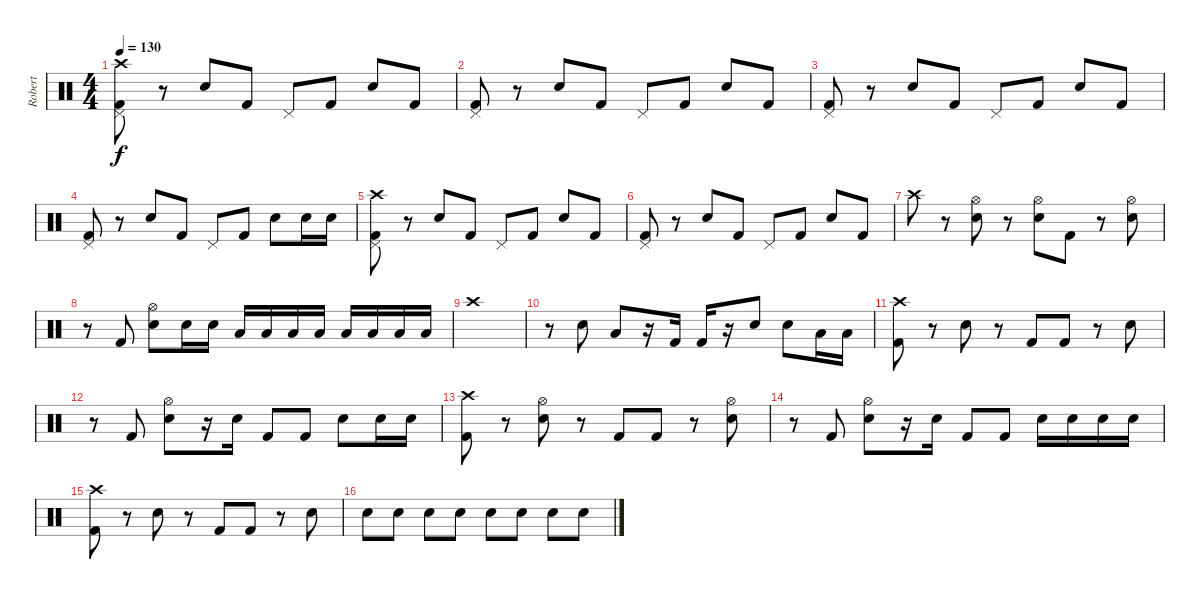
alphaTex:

\track ("Robert" "Robert") {instrument percussion}
\staff {score}
\articulation defaults
\ts (4 4)
\tempo 130
\clef neutral
\ks c
("Crash high (hit)" "Pedal Hi-Hat (hit)" "Kick (hit) 2").8{dy f} r.8 "Electric Snare (hit)".8 "Kick (hit) 2".8 "Pedal Hi-Hat (hit)".8 "Kick (hit) 2".8 "Electric Snare (hit)".8 "Kick (hit) 2".8 |
("Pedal Hi-Hat (hit)" "Kick (hit) 2").8 r.8 "Electric Snare (hit)".8 "Kick (hit) 2".8 "Pedal Hi-Hat (hit)".8 "Kick (hit) 2".8 "Electric Snare (hit)".8 "Kick (hit) 2".8 |
("Pedal Hi-Hat (hit)" "Kick (hit) 2").8 r.8 "Electric Snare (hit)".8 "Kick (hit) 2".8 "Pedal Hi-Hat (hit)".8 "Kick (hit) 2".8 "Electric Snare (hit)".8 "Kick (hit) 2".8 |
("Pedal Hi-Hat (hit)" "Kick (hit) 2").8 r.8 "Electric Snare (hit)".8 "Kick (hit) 2".8 "Pedal Hi-Hat (hit)".8 "Kick (hit) 2".8 "Electric Snare (hit)".8 "Electric Snare (hit)".16 "Electric Snare (hit)".16 |
("Crash high (hit)" "Pedal Hi-Hat (hit)" "Kick (hit) 2").8 r.8 "Electric Snare (hit)".8 "Kick (hit) 2".8 "Pedal Hi-Hat (hit)".8 "Kick (hit) 2".8 "Electric Snare (hit)".8 "Kick (hit) 2".8 |
("Pedal Hi-Hat (hit)" "Kick (hit) 2").8 r.8 "Electric Snare (hit)".8 "Kick (hit) 2".8 "Pedal Hi-Hat (hit)".8 "Kick (hit) 2".8 "Electric Snare (hit)".8 "Kick (hit) 2".8 |
"Crash high (hit)".8 r.8 ("Hi-Hat (open)" "Electric Snare (hit)").8 r.8 ("Hi-Hat (open)" "Electric Snare (hit)").8 "Kick (hit) 2".8 r.8 ("Hi-Hat (open)" "Electric Snare (hit)").8 |
r.8 "Kick (hit) 2".8 ("Hi-Hat (open)" "Electric Snare (hit)").8 "Electric Snare (hit)".16 "Electric Snare (hit)".16 "Low Tom (hit)".16 "Low Tom (hit)".16 "Low Tom (hit)".16 "Low Tom (hit)".16 "Low Tom (hit)".16 "Low Tom (hit)".16 "Low Tom (hit)".16 "Low Tom (hit)".16 |
"Crash high (hit)".1 |
r.8 "Electric Snare (hit)".8 "Low Tom (hit)".8 r.16 "Kick (hit) 2".16 "Kick (hit) 2".16 r.16 "Electric Snare (hit)".8 "Electric Snare (hit)".8 "Low Tom (hit)".16 "Low Tom (hit)".16 |
("Crash high (hit)" "Kick (hit) 2").8 r.8 "Electric Snare (hit)".8 r.8 "Kick (hit) 2".8 "Kick (hit) 2".8 r.8 "Electric Snare (hit)".8 |
r.8 "Kick (hit) 2".8 ("Hi-Hat (open)" "Electric Snare (hit)").8 r.16 "Electric Snare (hit)".16 "Kick (hit) 2".8 "Kick (hit) 2".8 "Electric Snare (hit)".8 "Electric Snare (hit)".16 "Electric Snare (hit)".16 |
("Crash high (hit)" "Kick (hit) 2").8 r.8 ("Hi-Hat (open)" "Electric Snare (hit)").8 r.8 "Kick (hit) 2".8 "Kick (hit) 2".8 r.8 ("Hi-Hat (open)" "Electric Snare (hit)").8 |
r.8 "Kick (hit) 2".8 ("Hi-Hat (open)" "Electric Snare (hit)").8 r.16 "Electric Snare (hit)".16 "Kick (hit) 2".8 "Kick (hit) 2".8 "Electric Snare (hit)".16 "Electric Snare (hit)".16 "Electric Snare (hit)".16 "Electric Snare (hit)".16 |
("Crash high (hit)" "Kick (hit) 2").8 r.8 "Electric Snare (hit)".8 r.8 "Kick (hit) 2".8 "Kick (hit) 2".8 r.8 "Electric Snare (hit)".8 |
"Electric Snare (hit)".8 "Electric Snare (hit)".8 "Electric Snare (hit)".8 "Electric Snare (hit)".8 "Electric Snare (hit)".8 "Electric Snare (hit)".8 "Electric Snare (hit)".8 "Electric Snare (hit)".8
